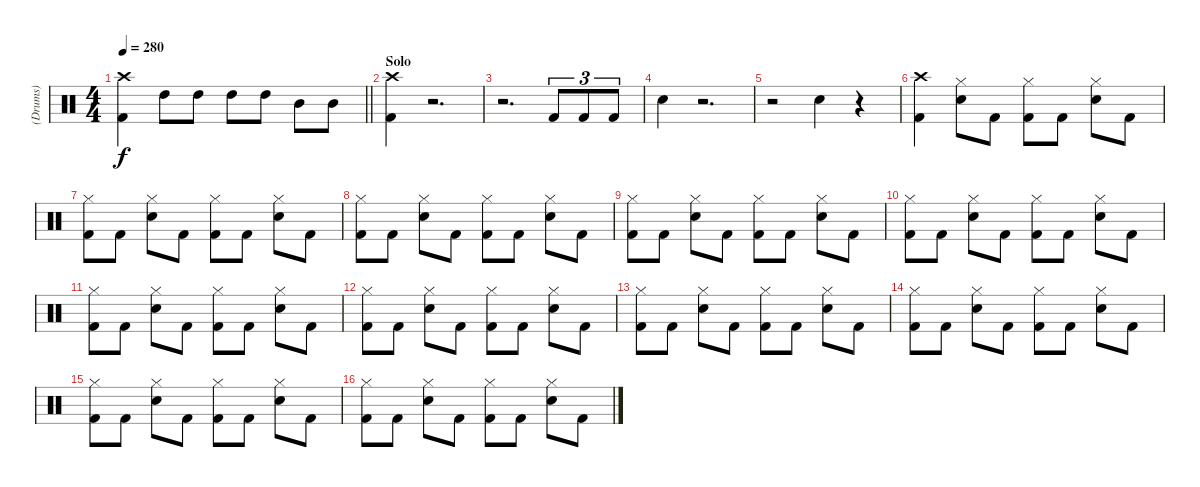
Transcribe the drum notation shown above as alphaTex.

\track ("(Drums)" "(Drums)") {instrument percussion}
\staff {score}
\articulation defaults
\ts (4 4)
\tempo 280
\clef neutral
\barLineRight lightlight
\ks c
("Kick (hit) 2" "Crash high (hit)").4{dy f} "High Tom (hit)".8 "High Tom (hit)".8 "High Tom (hit)".8 "High Tom (hit)".8 "Mid Tom (hit)".8 "Mid Tom (hit)".8 |
\section ("" "Solo")
("Kick (hit) 2" "Crash high (hit)").4 r.2{d} |
r.2{d} "Kick (hit) 2".8{tu (3 2)} "Kick (hit) 2".8{tu (3 2)} "Kick (hit) 2".8{tu (3 2)} |
"Snare (hit) 2".4 r.2{d} |
r.2 "Snare (hit) 2".4 r.4 |
("Kick (hit) 2" "Crash high (hit)").4 ("Hi-Hat (closed)" "Snare (hit) 2").8 "Kick (hit) 2".8 ("Hi-Hat (closed)" "Kick (hit) 2").8 "Kick (hit) 2".8 ("Hi-Hat (closed)" "Snare (hit) 2").8 "Kick (hit) 2".8 |
("Hi-Hat (closed)" "Kick (hit) 2").8 "Kick (hit) 2".8 ("Hi-Hat (closed)" "Snare (hit) 2").8 "Kick (hit) 2".8 ("Hi-Hat (closed)" "Kick (hit) 2").8 "Kick (hit) 2".8 ("Hi-Hat (closed)" "Snare (hit) 2").8 "Kick (hit) 2".8 |
("Hi-Hat (closed)" "Kick (hit) 2").8 "Kick (hit) 2".8 ("Hi-Hat (closed)" "Snare (hit) 2").8 "Kick (hit) 2".8 ("Hi-Hat (closed)" "Kick (hit) 2").8 "Kick (hit) 2".8 ("Hi-Hat (closed)" "Snare (hit) 2").8 "Kick (hit) 2".8 |
("Hi-Hat (closed)" "Kick (hit) 2").8 "Kick (hit) 2".8 ("Hi-Hat (closed)" "Snare (hit) 2").8 "Kick (hit) 2".8 ("Hi-Hat (closed)" "Kick (hit) 2").8 "Kick (hit) 2".8 ("Hi-Hat (closed)" "Snare (hit) 2").8 "Kick (hit) 2".8 |
("Hi-Hat (closed)" "Kick (hit) 2").8 "Kick (hit) 2".8 ("Hi-Hat (closed)" "Snare (hit) 2").8 "Kick (hit) 2".8 ("Hi-Hat (closed)" "Kick (hit) 2").8 "Kick (hit) 2".8 ("Hi-Hat (closed)" "Snare (hit) 2").8 "Kick (hit) 2".8 |
("Hi-Hat (closed)" "Kick (hit) 2").8 "Kick (hit) 2".8 ("Hi-Hat (closed)" "Snare (hit) 2").8 "Kick (hit) 2".8 ("Hi-Hat (closed)" "Kick (hit) 2").8 "Kick (hit) 2".8 ("Hi-Hat (closed)" "Snare (hit) 2").8 "Kick (hit) 2".8 |
("Hi-Hat (closed)" "Kick (hit) 2").8 "Kick (hit) 2".8 ("Hi-Hat (closed)" "Snare (hit) 2").8 "Kick (hit) 2".8 ("Hi-Hat (closed)" "Kick (hit) 2").8 "Kick (hit) 2".8 ("Hi-Hat (closed)" "Snare (hit) 2").8 "Kick (hit) 2".8 |
("Hi-Hat (closed)" "Kick (hit) 2").8 "Kick (hit) 2".8 ("Hi-Hat (closed)" "Snare (hit) 2").8 "Kick (hit) 2".8 ("Hi-Hat (closed)" "Kick (hit) 2").8 "Kick (hit) 2".8 ("Hi-Hat (closed)" "Snare (hit) 2").8 "Kick (hit) 2".8 |
("Hi-Hat (closed)" "Kick (hit) 2").8 "Kick (hit) 2".8 ("Hi-Hat (closed)" "Snare (hit) 2").8 "Kick (hit) 2".8 ("Hi-Hat (closed)" "Kick (hit) 2").8 "Kick (hit) 2".8 ("Hi-Hat (closed)" "Snare (hit) 2").8 "Kick (hit) 2".8 |
("Hi-Hat (closed)" "Kick (hit) 2").8 "Kick (hit) 2".8 ("Hi-Hat (closed)" "Snare (hit) 2").8 "Kick (hit) 2".8 ("Hi-Hat (closed)" "Kick (hit) 2").8 "Kick (hit) 2".8 ("Hi-Hat (closed)" "Snare (hit) 2").8 "Kick (hit) 2".8 |
("Hi-Hat (closed)" "Kick (hit) 2").8 "Kick (hit) 2".8 ("Hi-Hat (closed)" "Snare (hit) 2").8 "Kick (hit) 2".8 ("Hi-Hat (closed)" "Kick (hit) 2").8 "Kick (hit) 2".8 ("Hi-Hat (closed)" "Snare (hit) 2").8 "Kick (hit) 2".8
